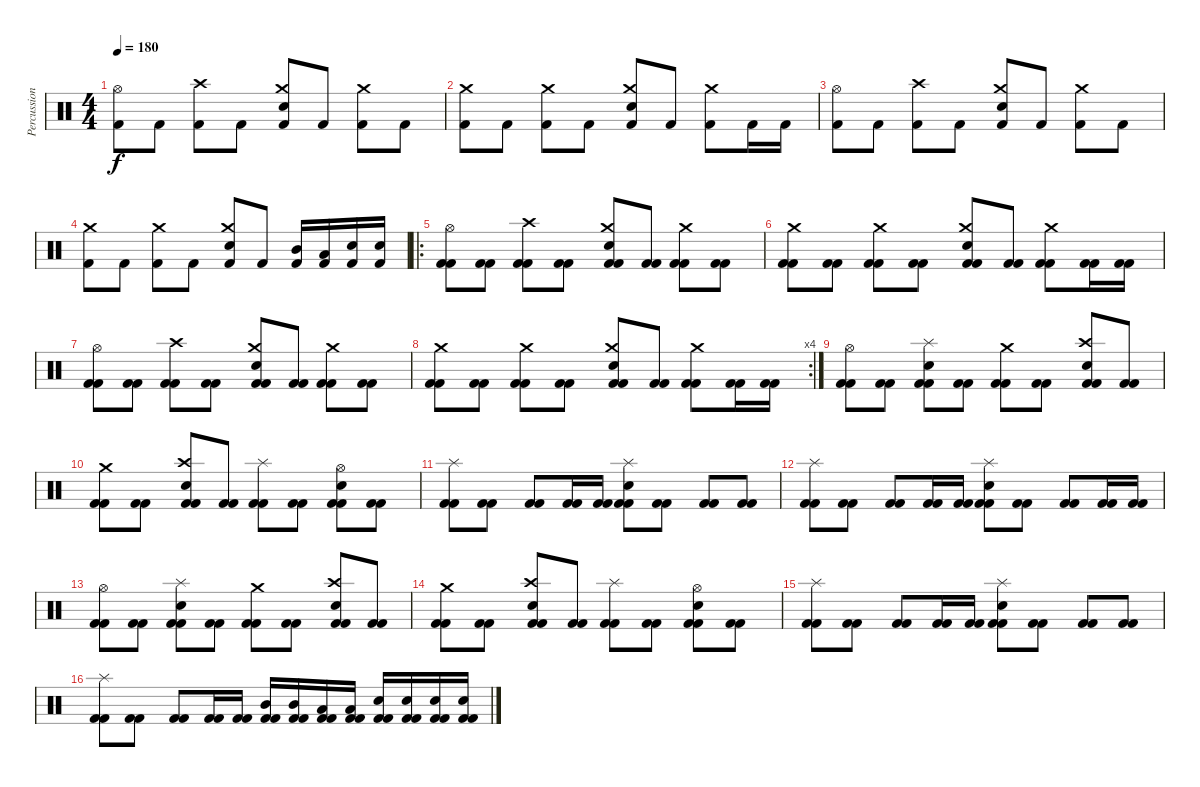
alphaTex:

\track ("Percussion" "Percussion") {instrument percussion}
\staff {score}
\articulation defaults
\ts (4 4)
\tempo 180
\clef neutral
\ks c
("Hi-Hat (open)" "Kick (hit) 2").8{dy f} "Kick (hit) 2".8 ("Crash high (hit)" "Kick (hit) 2").8 "Kick (hit) 2".8 ("Crash medium (hit)" "Electric Snare (hit)" "Kick (hit) 2").8 "Kick (hit) 2".8 ("Crash medium (hit)" "Kick (hit) 2").8 "Kick (hit) 2".8 |
("Crash medium (hit)" "Kick (hit) 2").8 "Kick (hit) 2".8 ("Crash medium (hit)" "Kick (hit) 2").8 "Kick (hit) 2".8 ("Crash medium (hit)" "Electric Snare (hit)" "Kick (hit) 2").8 "Kick (hit) 2".8 ("Crash medium (hit)" "Kick (hit) 2").8 "Kick (hit) 2".16 "Kick (hit) 2".16 |
("Hi-Hat (open)" "Kick (hit) 2").8 "Kick (hit) 2".8 ("Crash high (hit)" "Kick (hit) 2").8 "Kick (hit) 2".8 ("Crash medium (hit)" "Electric Snare (hit)" "Kick (hit) 2").8 "Kick (hit) 2".8 ("Crash medium (hit)" "Kick (hit) 2").8 "Kick (hit) 2".8 |
("Crash medium (hit)" "Kick (hit) 2").8 "Kick (hit) 2".8 ("Crash medium (hit)" "Kick (hit) 2").8 "Kick (hit) 2".8 ("Crash medium (hit)" "Electric Snare (hit)" "Kick (hit) 2").8 "Kick (hit) 2".8 ("Mid Tom (hit)" "Kick (hit) 2").16 ("Low Tom (hit)" "Kick (hit) 2").16 ("Electric Snare (hit)" "Kick (hit) 2").16 ("Electric Snare (hit)" "Kick (hit) 2").16 |
\ro
("Hi-Hat (open)" "Kick (hit) 2" "Kick (hit) 2").8 ("Kick (hit) 2" "Kick (hit) 2").8 ("Crash high (hit)" "Kick (hit) 2" "Kick (hit) 2").8 ("Kick (hit) 2" "Kick (hit) 2").8 ("Crash medium (hit)" "Electric Snare (hit)" "Kick (hit) 2" "Kick (hit) 2").8 ("Kick (hit) 2" "Kick (hit) 2").8 ("Crash medium (hit)" "Kick (hit) 2" "Kick (hit) 2").8 ("Kick (hit) 2" "Kick (hit) 2").8 |
("Crash medium (hit)" "Kick (hit) 2" "Kick (hit) 2").8 ("Kick (hit) 2" "Kick (hit) 2").8 ("Crash medium (hit)" "Kick (hit) 2" "Kick (hit) 2").8 ("Kick (hit) 2" "Kick (hit) 2").8 ("Crash medium (hit)" "Electric Snare (hit)" "Kick (hit) 2" "Kick (hit) 2").8 ("Kick (hit) 2" "Kick (hit) 2").8 ("Crash medium (hit)" "Kick (hit) 2" "Kick (hit) 2").8 ("Kick (hit) 2" "Kick (hit) 2").16 ("Kick (hit) 2" "Kick (hit) 2").16 |
("Hi-Hat (open)" "Kick (hit) 2" "Kick (hit) 2").8 ("Kick (hit) 2" "Kick (hit) 2").8 ("Crash high (hit)" "Kick (hit) 2" "Kick (hit) 2").8 ("Kick (hit) 2" "Kick (hit) 2").8 ("Crash medium (hit)" "Electric Snare (hit)" "Kick (hit) 2" "Kick (hit) 2").8 ("Kick (hit) 2" "Kick (hit) 2").8 ("Crash medium (hit)" "Kick (hit) 2" "Kick (hit) 2").8 ("Kick (hit) 2" "Kick (hit) 2").8 |
\rc 4
("Crash medium (hit)" "Kick (hit) 2" "Kick (hit) 2").8 ("Kick (hit) 2" "Kick (hit) 2").8 ("Crash medium (hit)" "Kick (hit) 2" "Kick (hit) 2").8 ("Kick (hit) 2" "Kick (hit) 2").8 ("Crash medium (hit)" "Electric Snare (hit)" "Kick (hit) 2" "Kick (hit) 2").8 ("Kick (hit) 2" "Kick (hit) 2").8 ("Crash medium (hit)" "Kick (hit) 2" "Kick (hit) 2").8 ("Kick (hit) 2" "Kick (hit) 2").16 ("Kick (hit) 2" "Kick (hit) 2").16 |
("Hi-Hat (open)" "Kick (hit) 2" "Kick (hit) 2").8 ("Kick (hit) 2" "Kick (hit) 2").8 ("Splash (hit)" "Electric Snare (hit)" "Kick (hit) 2" "Kick (hit) 2").8 ("Kick (hit) 2" "Kick (hit) 2").8 ("Crash medium (hit)" "Kick (hit) 2" "Kick (hit) 2").8 ("Kick (hit) 2" "Kick (hit) 2").8 ("Crash high (hit)" "Electric Snare (hit)" "Kick (hit) 2" "Kick (hit) 2").8 ("Kick (hit) 2" "Kick (hit) 2").8 |
("Crash medium (hit)" "Kick (hit) 2" "Kick (hit) 2").8 ("Kick (hit) 2" "Kick (hit) 2").8 ("Crash high (hit)" "Electric Snare (hit)" "Kick (hit) 2" "Kick (hit) 2").8 ("Kick (hit) 2" "Kick (hit) 2").8 ("Splash (hit)" "Kick (hit) 2" "Kick (hit) 2").8 ("Kick (hit) 2" "Kick (hit) 2").8 ("Hi-Hat (open)" "Electric Snare (hit)" "Kick (hit) 2" "Kick (hit) 2").8 ("Kick (hit) 2" "Kick (hit) 2").8 |
("Splash (hit)" "Kick (hit) 2" "Kick (hit) 2").8 ("Kick (hit) 2" "Kick (hit) 2").8 ("Kick (hit) 2" "Kick (hit) 2").8 ("Kick (hit) 2" "Kick (hit) 2").16 ("Kick (hit) 2" "Kick (hit) 2").16 ("Splash (hit)" "Electric Snare (hit)" "Kick (hit) 2" "Kick (hit) 2").8 ("Kick (hit) 2" "Kick (hit) 2").8 ("Kick (hit) 2" "Kick (hit) 2").8 ("Kick (hit) 2" "Kick (hit) 2").8 |
("Splash (hit)" "Kick (hit) 2" "Kick (hit) 2").8 ("Kick (hit) 2" "Kick (hit) 2").8 ("Kick (hit) 2" "Kick (hit) 2").8 ("Kick (hit) 2" "Kick (hit) 2").16 ("Kick (hit) 2" "Kick (hit) 2").16 ("Splash (hit)" "Electric Snare (hit)" "Kick (hit) 2" "Kick (hit) 2").8 ("Kick (hit) 2" "Kick (hit) 2").8 ("Kick (hit) 2" "Kick (hit) 2").8 ("Kick (hit) 2" "Kick (hit) 2").16 ("Kick (hit) 2" "Kick (hit) 2").16 |
("Hi-Hat (open)" "Kick (hit) 2" "Kick (hit) 2").8 ("Kick (hit) 2" "Kick (hit) 2").8 ("Splash (hit)" "Electric Snare (hit)" "Kick (hit) 2" "Kick (hit) 2").8 ("Kick (hit) 2" "Kick (hit) 2").8 ("Crash medium (hit)" "Kick (hit) 2" "Kick (hit) 2").8 ("Kick (hit) 2" "Kick (hit) 2").8 ("Crash high (hit)" "Electric Snare (hit)" "Kick (hit) 2" "Kick (hit) 2").8 ("Kick (hit) 2" "Kick (hit) 2").8 |
("Crash medium (hit)" "Kick (hit) 2" "Kick (hit) 2").8 ("Kick (hit) 2" "Kick (hit) 2").8 ("Crash high (hit)" "Electric Snare (hit)" "Kick (hit) 2" "Kick (hit) 2").8 ("Kick (hit) 2" "Kick (hit) 2").8 ("Splash (hit)" "Kick (hit) 2" "Kick (hit) 2").8 ("Kick (hit) 2" "Kick (hit) 2").8 ("Hi-Hat (open)" "Electric Snare (hit)" "Kick (hit) 2" "Kick (hit) 2").8 ("Kick (hit) 2" "Kick (hit) 2").8 |
("Splash (hit)" "Kick (hit) 2" "Kick (hit) 2").8 ("Kick (hit) 2" "Kick (hit) 2").8 ("Kick (hit) 2" "Kick (hit) 2").8 ("Kick (hit) 2" "Kick (hit) 2").16 ("Kick (hit) 2" "Kick (hit) 2").16 ("Splash (hit)" "Electric Snare (hit)" "Kick (hit) 2" "Kick (hit) 2").8 ("Kick (hit) 2" "Kick (hit) 2").8 ("Kick (hit) 2" "Kick (hit) 2").8 ("Kick (hit) 2" "Kick (hit) 2").8 |
("Splash (hit)" "Kick (hit) 2" "Kick (hit) 2").8 ("Kick (hit) 2" "Kick (hit) 2").8 ("Kick (hit) 2" "Kick (hit) 2").8 ("Kick (hit) 2" "Kick (hit) 2").16 ("Kick (hit) 2" "Kick (hit) 2").16 ("Mid Tom (hit)" "Kick (hit) 2" "Kick (hit) 2").16 ("Mid Tom (hit)" "Kick (hit) 2" "Kick (hit) 2").16 ("Low Tom (hit)" "Kick (hit) 2" "Kick (hit) 2").16 ("Low Tom (hit)" "Kick (hit) 2" "Kick (hit) 2").16 ("Electric Snare (hit)" "Kick (hit) 2" "Kick (hit) 2").16 ("Electric Snare (hit)" "Kick (hit) 2" "Kick (hit) 2").16 ("Electric Snare (hit)" "Kick (hit) 2" "Kick (hit) 2").16 ("Electric Snare (hit)" "Kick (hit) 2" "Kick (hit) 2").16
